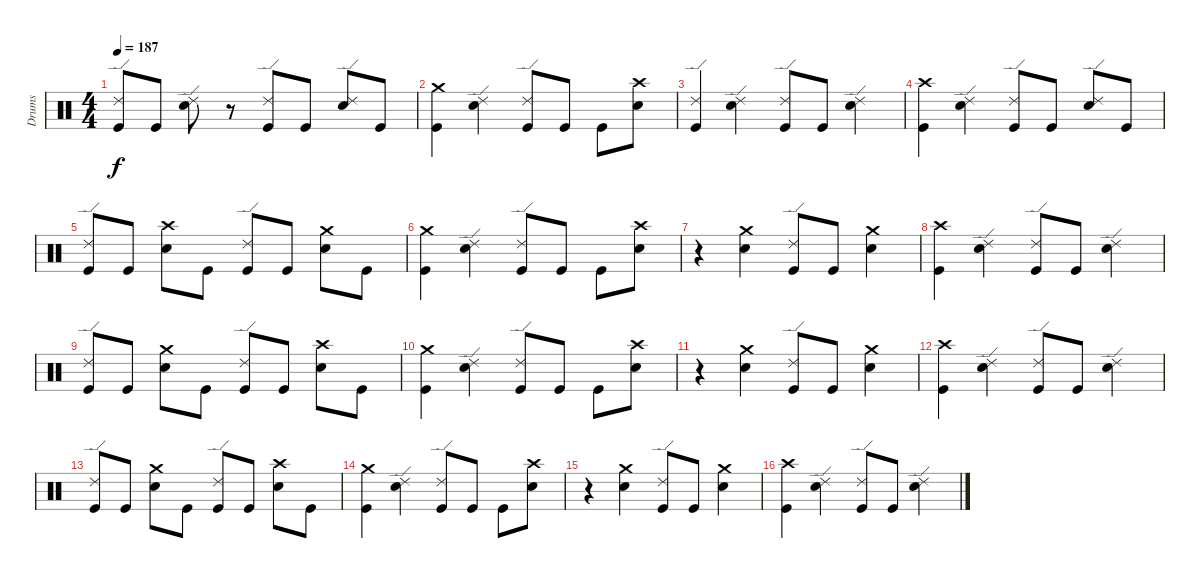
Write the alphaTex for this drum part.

\track ("Drums" "Drums") {instrument percussion}
\staff {score}
\articulation defaults
\ts (4 4)
\tempo 187
\clef neutral
\ks c
("Ride (edge) 2" "Kick (hit)").8{dy f} "Kick (hit)".8 ("Ride (edge) 2" "Snare (hit) 2").8 r.8 ("Ride (edge) 2" "Kick (hit)").8 "Kick (hit)".8 ("Ride (edge) 2" "Snare (hit) 2").8 "Kick (hit)".8 |
("Crash medium (hit)" "Kick (hit)").4 ("Ride (edge) 2" "Snare (hit) 2").4 ("Ride (edge) 2" "Kick (hit)").8 "Kick (hit)".8 "Kick (hit)".8 ("Crash high (hit)" "Snare (hit) 2").8 |
("Ride (edge) 2" "Kick (hit)").4 ("Ride (edge) 2" "Snare (hit) 2").4 ("Ride (edge) 2" "Kick (hit)").8 "Kick (hit)".8 ("Ride (edge) 2" "Snare (hit) 2").4 |
("Crash high (hit)" "Kick (hit)").4 ("Ride (edge) 2" "Snare (hit) 2").4 ("Ride (edge) 2" "Kick (hit)").8 "Kick (hit)".8 ("Ride (edge) 2" "Snare (hit) 2").8 "Kick (hit)".8 |
("Ride (edge) 2" "Kick (hit)").8 "Kick (hit)".8 ("Crash high (hit)" "Snare (hit) 2").8 "Kick (hit)".8 ("Ride (edge) 2" "Kick (hit)").8 "Kick (hit)".8 ("Crash medium (hit)" "Snare (hit) 2").8 "Kick (hit)".8 |
("Crash medium (hit)" "Kick (hit)").4 ("Ride (edge) 2" "Snare (hit) 2").4 ("Ride (edge) 2" "Kick (hit)").8 "Kick (hit)".8 "Kick (hit)".8 ("Crash high (hit)" "Snare (hit) 2").8 |
r.4 ("Crash medium (hit)" "Snare (hit) 2").4 ("Ride (edge) 2" "Kick (hit)").8 "Kick (hit)".8 ("Crash medium (hit)" "Snare (hit) 2").4 |
("Crash high (hit)" "Kick (hit)").4 ("Ride (edge) 2" "Snare (hit) 2").4 ("Ride (edge) 2" "Kick (hit)").8 "Kick (hit)".8 ("Ride (edge) 2" "Snare (hit) 2").4 |
("Ride (edge) 2" "Kick (hit)").8 "Kick (hit)".8 ("Crash medium (hit)" "Snare (hit) 2").8 "Kick (hit)".8 ("Ride (edge) 2" "Kick (hit)").8 "Kick (hit)".8 ("Crash high (hit)" "Snare (hit) 2").8 "Kick (hit)".8 |
("Crash medium (hit)" "Kick (hit)").4 ("Ride (edge) 2" "Snare (hit) 2").4 ("Ride (edge) 2" "Kick (hit)").8 "Kick (hit)".8 "Kick (hit)".8 ("Crash high (hit)" "Snare (hit) 2").8 |
r.4 ("Crash medium (hit)" "Snare (hit) 2").4 ("Ride (edge) 2" "Kick (hit)").8 "Kick (hit)".8 ("Crash medium (hit)" "Snare (hit) 2").4 |
("Crash high (hit)" "Kick (hit)").4 ("Ride (edge) 2" "Snare (hit) 2").4 ("Ride (edge) 2" "Kick (hit)").8 "Kick (hit)".8 ("Ride (edge) 2" "Snare (hit) 2").4 |
("Ride (edge) 2" "Kick (hit)").8 "Kick (hit)".8 ("Crash medium (hit)" "Snare (hit) 2").8 "Kick (hit)".8 ("Ride (edge) 2" "Kick (hit)").8 "Kick (hit)".8 ("Crash high (hit)" "Snare (hit) 2").8 "Kick (hit)".8 |
("Crash medium (hit)" "Kick (hit)").4 ("Ride (edge) 2" "Snare (hit) 2").4 ("Ride (edge) 2" "Kick (hit)").8 "Kick (hit)".8 "Kick (hit)".8 ("Crash high (hit)" "Snare (hit) 2").8 |
r.4 ("Crash medium (hit)" "Snare (hit) 2").4 ("Ride (edge) 2" "Kick (hit)").8 "Kick (hit)".8 ("Crash medium (hit)" "Snare (hit) 2").4 |
("Crash high (hit)" "Kick (hit)").4 ("Ride (edge) 2" "Snare (hit) 2").4 ("Ride (edge) 2" "Kick (hit)").8 "Kick (hit)".8 ("Ride (edge) 2" "Snare (hit) 2").4
